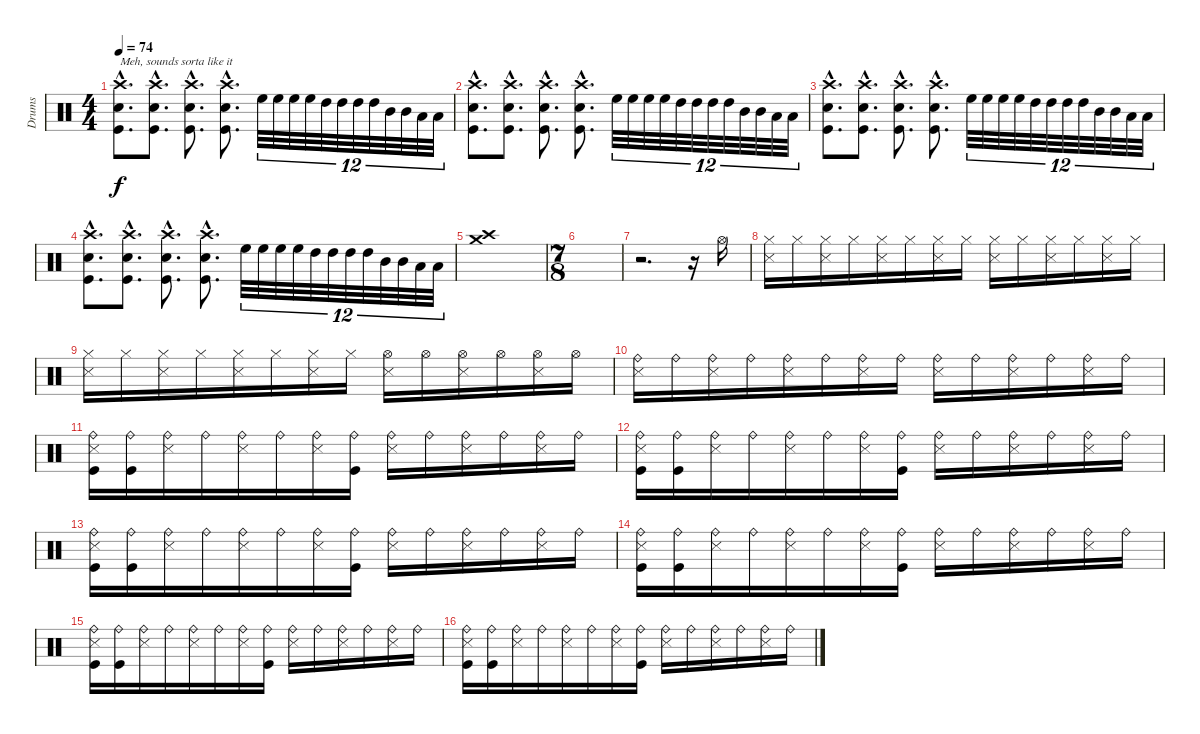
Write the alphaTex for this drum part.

\track ("Drums" "Drums") {instrument percussion}
\staff {score}
\articulation defaults
\ts (4 4)
\tempo 74
\clef neutral
\ks c
("Crash high (hit)"{hac} "Snare (hit) 2"{hac} "Kick (hit)"{hac}).8{d txt "Meh, sounds sorta like it" dy f} ("Crash high (hit)"{hac} "Snare (hit) 2"{hac} "Kick (hit)"{hac}).8{d} ("Crash high (hit)"{hac} "Snare (hit) 2"{hac} "Kick (hit)"{hac}).8{d} ("Crash high (hit)"{hac} "Snare (hit) 2"{hac} "Kick (hit)"{hac}).8{d} "High Floor Tom (hit)".32{tu (12 8)} "High Floor Tom (hit)".32{tu (12 8)} "High Floor Tom (hit)".32{tu (12 8)} "High Floor Tom (hit)".32{tu (12 8)} "High Tom (hit)".32{tu (12 8)} "High Tom (hit)".32{tu (12 8)} "High Tom (hit)".32{tu (12 8)} "High Tom (hit)".32{tu (12 8)} "Mid Tom (hit)".32{tu (12 8)} "Mid Tom (hit)".32{tu (12 8)} "Low Tom (hit)".32{tu (12 8)} "Low Tom (hit)".32{tu (12 8)} |
("Crash high (hit)"{hac} "Snare (hit) 2"{hac} "Kick (hit)"{hac}).8{d} ("Crash high (hit)"{hac} "Snare (hit) 2"{hac} "Kick (hit)"{hac}).8{d} ("Crash high (hit)"{hac} "Snare (hit) 2"{hac} "Kick (hit)"{hac}).8{d} ("Crash high (hit)"{hac} "Snare (hit) 2"{hac} "Kick (hit)"{hac}).8{d} "High Floor Tom (hit)".32{tu (12 8)} "High Floor Tom (hit)".32{tu (12 8)} "High Floor Tom (hit)".32{tu (12 8)} "High Floor Tom (hit)".32{tu (12 8)} "High Tom (hit)".32{tu (12 8)} "High Tom (hit)".32{tu (12 8)} "High Tom (hit)".32{tu (12 8)} "High Tom (hit)".32{tu (12 8)} "Mid Tom (hit)".32{tu (12 8)} "Mid Tom (hit)".32{tu (12 8)} "Low Tom (hit)".32{tu (12 8)} "Low Tom (hit)".32{tu (12 8)} |
("Crash high (hit)"{hac} "Snare (hit) 2"{hac} "Kick (hit)"{hac}).8{d} ("Crash high (hit)"{hac} "Snare (hit) 2"{hac} "Kick (hit)"{hac}).8{d} ("Crash high (hit)"{hac} "Snare (hit) 2"{hac} "Kick (hit)"{hac}).8{d} ("Crash high (hit)"{hac} "Snare (hit) 2"{hac} "Kick (hit)"{hac}).8{d} "High Floor Tom (hit)".32{tu (12 8)} "High Floor Tom (hit)".32{tu (12 8)} "High Floor Tom (hit)".32{tu (12 8)} "High Floor Tom (hit)".32{tu (12 8)} "High Tom (hit)".32{tu (12 8)} "High Tom (hit)".32{tu (12 8)} "High Tom (hit)".32{tu (12 8)} "High Tom (hit)".32{tu (12 8)} "Mid Tom (hit)".32{tu (12 8)} "Mid Tom (hit)".32{tu (12 8)} "Low Tom (hit)".32{tu (12 8)} "Low Tom (hit)".32{tu (12 8)} |
("Crash high (hit)"{hac} "Snare (hit) 2"{hac} "Kick (hit)"{hac}).8{d} ("Crash high (hit)"{hac} "Snare (hit) 2"{hac} "Kick (hit)"{hac}).8{d} ("Crash high (hit)"{hac} "Snare (hit) 2"{hac} "Kick (hit)"{hac}).8{d} ("Crash high (hit)"{hac} "Snare (hit) 2"{hac} "Kick (hit)"{hac}).8{d} "High Floor Tom (hit)".32{tu (12 8)} "High Floor Tom (hit)".32{tu (12 8)} "High Floor Tom (hit)".32{tu (12 8)} "High Floor Tom (hit)".32{tu (12 8)} "High Tom (hit)".32{tu (12 8)} "High Tom (hit)".32{tu (12 8)} "High Tom (hit)".32{tu (12 8)} "High Tom (hit)".32{tu (12 8)} "Mid Tom (hit)".32{tu (12 8)} "Mid Tom (hit)".32{tu (12 8)} "Low Tom (hit)".32{tu (12 8)} "Low Tom (hit)".32{tu (12 8)} |
("Crash medium (hit)" "Crash high (hit)").1 |
\ts (7 8)
|
r.2{d} r.16 "Hi-Hat (open)".16 |
("Hi-Hat (closed)" "Snare (side stick) 3").16 "Hi-Hat (closed)".16 ("Hi-Hat (closed)" "Snare (side stick) 3").16 "Hi-Hat (closed)".16 ("Hi-Hat (closed)" "Snare (side stick) 3").16 "Hi-Hat (closed)".16 ("Hi-Hat (closed)" "Snare (side stick) 3").16 "Hi-Hat (closed)".16 ("Hi-Hat (closed)" "Snare (side stick) 3").16 "Hi-Hat (closed)".16 ("Hi-Hat (closed)" "Snare (side stick) 3").16 "Hi-Hat (closed)".16 ("Hi-Hat (closed)" "Snare (side stick) 3").16 "Hi-Hat (closed)".16 |
("Hi-Hat (closed)" "Snare (side stick) 3").16 "Hi-Hat (closed)".16 ("Hi-Hat (closed)" "Snare (side stick) 3").16 "Hi-Hat (closed)".16 ("Hi-Hat (closed)" "Snare (side stick) 3").16 "Hi-Hat (closed)".16 ("Hi-Hat (closed)" "Snare (side stick) 3").16 "Hi-Hat (closed)".16 ("Hi-Hat (open)" "Snare (side stick) 3").16 "Hi-Hat (open)".16 ("Hi-Hat (open)" "Snare (side stick) 3").16 "Hi-Hat (open)".16 ("Hi-Hat (open)" "Snare (side stick) 3").16 "Hi-Hat (open)".16 |
("Ride (bell)" "Snare (side stick) 3").16 "Ride (bell)".16 ("Ride (bell)" "Snare (side stick) 3").16 "Ride (bell)".16 ("Ride (bell)" "Snare (side stick) 3").16 "Ride (bell)".16 ("Ride (bell)" "Snare (side stick) 3").16 "Ride (bell)".16 ("Ride (bell)" "Snare (side stick) 3").16 "Ride (bell)".16 ("Ride (bell)" "Snare (side stick) 3").16 "Ride (bell)".16 ("Ride (bell)" "Snare (side stick) 3").16 "Ride (bell)".16 |
("Ride (bell)" "Snare (side stick) 3" "Kick (hit)").16 ("Ride (bell)" "Kick (hit)").16 ("Ride (bell)" "Snare (side stick) 3").16 "Ride (bell)".16 ("Ride (bell)" "Snare (side stick) 3").16 "Ride (bell)".16 ("Ride (bell)" "Snare (side stick) 3").16 ("Ride (bell)" "Kick (hit)").16 ("Ride (bell)" "Snare (side stick) 3").16 "Ride (bell)".16 ("Ride (bell)" "Snare (side stick) 3").16 "Ride (bell)".16 ("Ride (bell)" "Snare (side stick) 3").16 "Ride (bell)".16 |
("Ride (bell)" "Snare (side stick) 3" "Kick (hit)").16 ("Ride (bell)" "Kick (hit)").16 ("Ride (bell)" "Snare (side stick) 3").16 "Ride (bell)".16 ("Ride (bell)" "Snare (side stick) 3").16 "Ride (bell)".16 ("Ride (bell)" "Snare (side stick) 3").16 ("Ride (bell)" "Kick (hit)").16 ("Ride (bell)" "Snare (side stick) 3").16 "Ride (bell)".16 ("Ride (bell)" "Snare (side stick) 3").16 "Ride (bell)".16 ("Ride (bell)" "Snare (side stick) 3").16 "Ride (bell)".16 |
("Ride (bell)" "Snare (side stick) 3" "Kick (hit)").16 ("Ride (bell)" "Kick (hit)").16 ("Ride (bell)" "Snare (side stick) 3").16 "Ride (bell)".16 ("Ride (bell)" "Snare (side stick) 3").16 "Ride (bell)".16 ("Ride (bell)" "Snare (side stick) 3").16 ("Ride (bell)" "Kick (hit)").16 ("Ride (bell)" "Snare (side stick) 3").16 "Ride (bell)".16 ("Ride (bell)" "Snare (side stick) 3").16 "Ride (bell)".16 ("Ride (bell)" "Snare (side stick) 3").16 "Ride (bell)".16 |
("Ride (bell)" "Snare (side stick) 3" "Kick (hit)").16 ("Ride (bell)" "Kick (hit)").16 ("Ride (bell)" "Snare (side stick) 3").16 "Ride (bell)".16 ("Ride (bell)" "Snare (side stick) 3").16 "Ride (bell)".16 ("Ride (bell)" "Snare (side stick) 3").16 ("Ride (bell)" "Kick (hit)").16 ("Ride (bell)" "Snare (side stick) 3").16 "Ride (bell)".16 ("Ride (bell)" "Snare (side stick) 3").16 "Ride (bell)".16 ("Ride (bell)" "Snare (side stick) 3").16 "Ride (bell)".16 |
("Ride (bell)" "Snare (side stick) 3" "Kick (hit)").16 ("Ride (bell)" "Kick (hit)").16 ("Ride (bell)" "Snare (side stick) 3").16 "Ride (bell)".16 ("Ride (bell)" "Snare (side stick) 3").16 "Ride (bell)".16 ("Ride (bell)" "Snare (side stick) 3").16 ("Ride (bell)" "Kick (hit)").16 ("Ride (bell)" "Snare (side stick) 3").16 "Ride (bell)".16 ("Ride (bell)" "Snare (side stick) 3").16 "Ride (bell)".16 ("Ride (bell)" "Snare (side stick) 3").16 "Ride (bell)".16 |
("Ride (bell)" "Snare (side stick) 3" "Kick (hit)").16 ("Ride (bell)" "Kick (hit)").16 ("Ride (bell)" "Snare (side stick) 3").16 "Ride (bell)".16 ("Ride (bell)" "Snare (side stick) 3").16 "Ride (bell)".16 ("Ride (bell)" "Snare (side stick) 3").16 ("Ride (bell)" "Kick (hit)").16 ("Ride (bell)" "Snare (side stick) 3").16 "Ride (bell)".16 ("Ride (bell)" "Snare (side stick) 3").16 "Ride (bell)".16 ("Ride (bell)" "Snare (side stick) 3").16 "Ride (bell)".16
